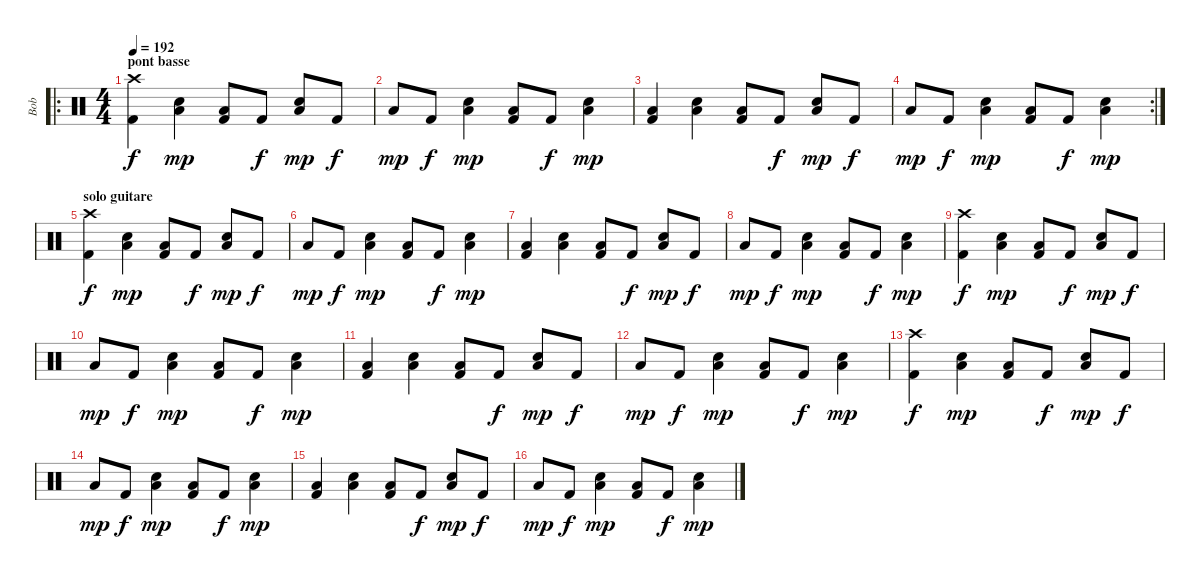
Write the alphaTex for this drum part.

\track ("Bob" "Bob") {instrument percussion}
\staff {score}
\articulation defaults
\ro
\ts (4 4)
\section ("" "pont basse")
\tempo 192
\clef neutral
\ks c
("Crash high (hit)" "Kick (hit) 2").4{dy f} ("Low Tom (hit)" "Electric Snare (hit)").4{dy mp} ("Low Tom (hit)" "Kick (hit) 2").8 "Kick (hit) 2".8{dy f} ("Low Tom (hit)" "Electric Snare (hit)").8{dy mp} "Kick (hit) 2".8{dy f} |
"Low Tom (hit)".8{dy mp} "Kick (hit) 2".8{dy f} ("Low Tom (hit)" "Electric Snare (hit)").4{dy mp} ("Low Tom (hit)" "Kick (hit) 2").8 "Kick (hit) 2".8{dy f} ("Low Tom (hit)" "Electric Snare (hit)").4{dy mp} |
("Low Tom (hit)" "Kick (hit) 2").4 ("Low Tom (hit)" "Electric Snare (hit)").4 ("Low Tom (hit)" "Kick (hit) 2").8 "Kick (hit) 2".8{dy f} ("Low Tom (hit)" "Electric Snare (hit)").8{dy mp} "Kick (hit) 2".8{dy f} |
\rc 2 "Low Tom (hit)".8{dy mp} "Kick (hit) 2".8{dy f}
("Low Tom (hit)" "Electric Snare (hit)").4{dy mp} ("Low Tom (hit)" "Kick (hit) 2").8 "Kick (hit) 2".8{dy f} ("Low Tom (hit)" "Electric Snare (hit)").4{dy mp} |
\section ("" "solo guitare")
("Crash high (hit)" "Kick (hit) 2").4{dy f} ("Low Tom (hit)" "Electric Snare (hit)").4{dy mp} ("Low Tom (hit)" "Kick (hit) 2").8 "Kick (hit) 2".8{dy f} ("Low Tom (hit)" "Electric Snare (hit)").8{dy mp} "Kick (hit) 2".8{dy f} |
"Low Tom (hit)".8{dy mp} "Kick (hit) 2".8{dy f} ("Low Tom (hit)" "Electric Snare (hit)").4{dy mp} ("Low Tom (hit)" "Kick (hit) 2").8 "Kick (hit) 2".8{dy f} ("Low Tom (hit)" "Electric Snare (hit)").4{dy mp} |
("Low Tom (hit)" "Kick (hit) 2").4 ("Low Tom (hit)" "Electric Snare (hit)").4 ("Low Tom (hit)" "Kick (hit) 2").8 "Kick (hit) 2".8{dy f} ("Low Tom (hit)" "Electric Snare (hit)").8{dy mp} "Kick (hit) 2".8{dy f} |
"Low Tom (hit)".8{dy mp} "Kick (hit) 2".8{dy f} ("Low Tom (hit)" "Electric Snare (hit)").4{dy mp} ("Low Tom (hit)" "Kick (hit) 2").8 "Kick (hit) 2".8{dy f} ("Low Tom (hit)" "Electric Snare (hit)").4{dy mp} |
("Crash high (hit)" "Kick (hit) 2").4{dy f} ("Low Tom (hit)" "Electric Snare (hit)").4{dy mp} ("Low Tom (hit)" "Kick (hit) 2").8 "Kick (hit) 2".8{dy f} ("Low Tom (hit)" "Electric Snare (hit)").8{dy mp} "Kick (hit) 2".8{dy f} |
"Low Tom (hit)".8{dy mp} "Kick (hit) 2".8{dy f} ("Low Tom (hit)" "Electric Snare (hit)").4{dy mp} ("Low Tom (hit)" "Kick (hit) 2").8 "Kick (hit) 2".8{dy f} ("Low Tom (hit)" "Electric Snare (hit)").4{dy mp} |
("Low Tom (hit)" "Kick (hit) 2").4 ("Low Tom (hit)" "Electric Snare (hit)").4 ("Low Tom (hit)" "Kick (hit) 2").8 "Kick (hit) 2".8{dy f} ("Low Tom (hit)" "Electric Snare (hit)").8{dy mp} "Kick (hit) 2".8{dy f} |
"Low Tom (hit)".8{dy mp} "Kick (hit) 2".8{dy f} ("Low Tom (hit)" "Electric Snare (hit)").4{dy mp} ("Low Tom (hit)" "Kick (hit) 2").8 "Kick (hit) 2".8{dy f} ("Low Tom (hit)" "Electric Snare (hit)").4{dy mp} |
("Crash high (hit)" "Kick (hit) 2").4{dy f} ("Low Tom (hit)" "Electric Snare (hit)").4{dy mp} ("Low Tom (hit)" "Kick (hit) 2").8 "Kick (hit) 2".8{dy f} ("Low Tom (hit)" "Electric Snare (hit)").8{dy mp} "Kick (hit) 2".8{dy f} |
"Low Tom (hit)".8{dy mp} "Kick (hit) 2".8{dy f} ("Low Tom (hit)" "Electric Snare (hit)").4{dy mp} ("Low Tom (hit)" "Kick (hit) 2").8 "Kick (hit) 2".8{dy f} ("Low Tom (hit)" "Electric Snare (hit)").4{dy mp} |
("Low Tom (hit)" "Kick (hit) 2").4 ("Low Tom (hit)" "Electric Snare (hit)").4 ("Low Tom (hit)" "Kick (hit) 2").8 "Kick (hit) 2".8{dy f} ("Low Tom (hit)" "Electric Snare (hit)").8{dy mp} "Kick (hit) 2".8{dy f} |
"Low Tom (hit)".8{dy mp} "Kick (hit) 2".8{dy f} ("Low Tom (hit)" "Electric Snare (hit)").4{dy mp} ("Low Tom (hit)" "Kick (hit) 2").8 "Kick (hit) 2".8{dy f} ("Low Tom (hit)" "Electric Snare (hit)").4{dy mp}
